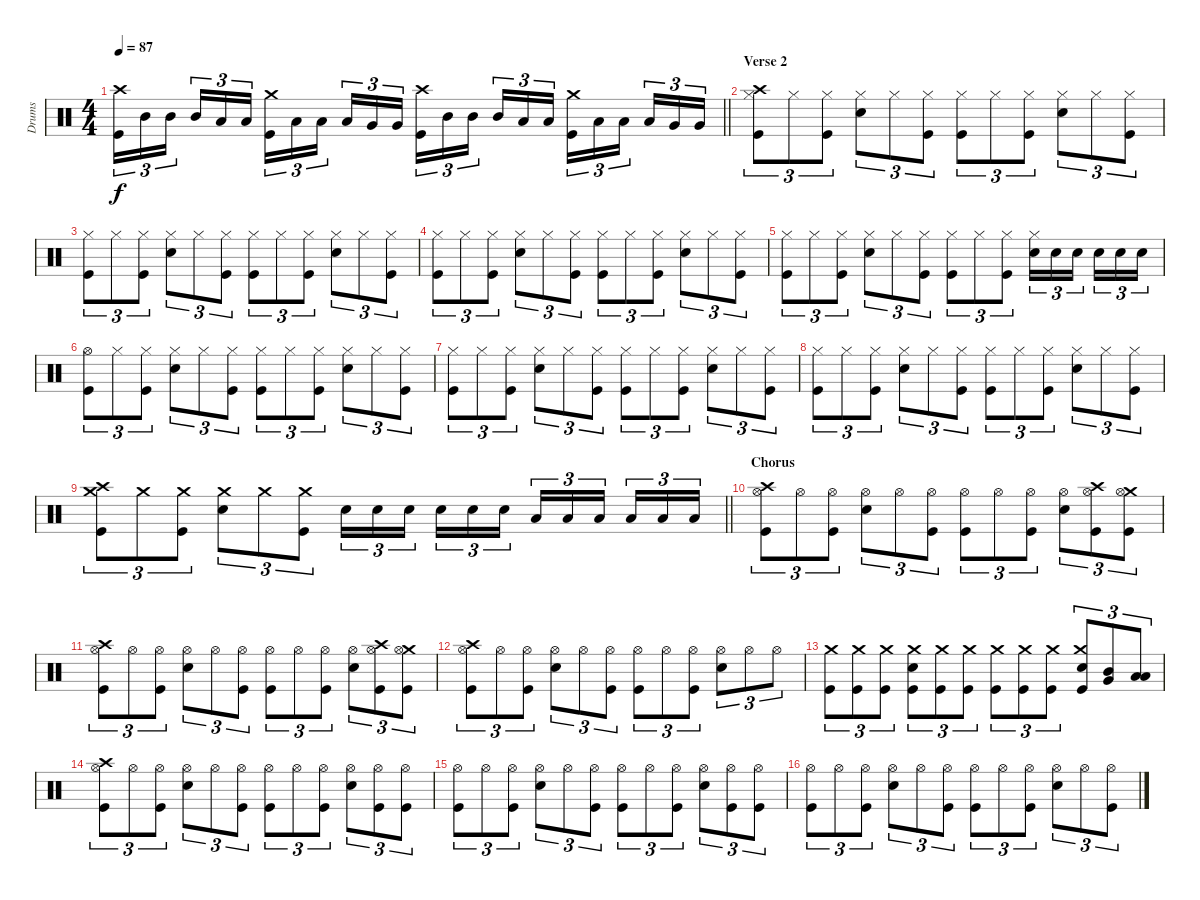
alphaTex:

\track ("Drums" "Drums") {instrument percussion}
\staff {score}
\articulation defaults
\ts (4 4)
\tempo 87
\clef neutral
\barLineRight lightlight
\ks c
("Crash high (hit)" "Kick (hit)").16{tu (3 2) dy f} "Mid Tom (hit)".16{tu (3 2)} "Mid Tom (hit)".16{tu (3 2) beam splitsecondary} "Mid Tom (hit)".16{tu (3 2)} "Low Tom (hit)".16{tu (3 2)} "Low Tom (hit)".16{tu (3 2)} ("Crash medium (hit)" "Kick (hit)").16{tu (3 2)} "Low Tom (hit)".16{tu (3 2)} "Low Tom (hit)".16{tu (3 2) beam splitsecondary} "Low Tom (hit)".16{tu (3 2)} "Very Low Tom (hit)".16{tu (3 2)} "Very Low Tom (hit)".16{tu (3 2)} ("Crash high (hit)" "Kick (hit)").16{tu (3 2)} "Mid Tom (hit)".16{tu (3 2)} "Mid Tom (hit)".16{tu (3 2) beam splitsecondary} "Mid Tom (hit)".16{tu (3 2)} "Low Tom (hit)".16{tu (3 2)} "Low Tom (hit)".16{tu (3 2)} ("Crash medium (hit)" "Kick (hit)").16{tu (3 2)} "Low Tom (hit)".16{tu (3 2)} "Low Tom (hit)".16{tu (3 2) beam splitsecondary} "Low Tom (hit)".16{tu (3 2)} "Very Low Tom (hit)".16{tu (3 2)} "Very Low Tom (hit)".16{tu (3 2)} |
\section ("" "Verse 2")
("Crash high (hit)" "Hi-Hat (closed)" "Kick (hit)").8{tu (3 2)} "Hi-Hat (closed)".8{tu (3 2)} ("Hi-Hat (closed)" "Kick (hit)").8{tu (3 2)} ("Hi-Hat (closed)" "Snare (hit) 2").8{tu (3 2)} "Hi-Hat (closed)".8{tu (3 2)} ("Hi-Hat (closed)" "Kick (hit)").8{tu (3 2)} ("Hi-Hat (closed)" "Kick (hit)").8{tu (3 2)} "Hi-Hat (closed)".8{tu (3 2)} ("Hi-Hat (closed)" "Kick (hit)").8{tu (3 2)} ("Hi-Hat (closed)" "Snare (hit) 2").8{tu (3 2)} "Hi-Hat (closed)".8{tu (3 2)} ("Hi-Hat (closed)" "Kick (hit)").8{tu (3 2)} |
("Hi-Hat (closed)" "Kick (hit)").8{tu (3 2)} "Hi-Hat (closed)".8{tu (3 2)} ("Hi-Hat (closed)" "Kick (hit)").8{tu (3 2)} ("Hi-Hat (closed)" "Snare (hit) 2").8{tu (3 2)} "Hi-Hat (closed)".8{tu (3 2)} ("Hi-Hat (closed)" "Kick (hit)").8{tu (3 2)} ("Hi-Hat (closed)" "Kick (hit)").8{tu (3 2)} "Hi-Hat (closed)".8{tu (3 2)} ("Hi-Hat (closed)" "Kick (hit)").8{tu (3 2)} ("Hi-Hat (closed)" "Snare (hit) 2").8{tu (3 2)} "Hi-Hat (closed)".8{tu (3 2)} ("Hi-Hat (closed)" "Kick (hit)").8{tu (3 2)} |
("Hi-Hat (closed)" "Kick (hit)").8{tu (3 2)} "Hi-Hat (closed)".8{tu (3 2)} ("Hi-Hat (closed)" "Kick (hit)").8{tu (3 2)} ("Hi-Hat (closed)" "Snare (hit) 2").8{tu (3 2)} "Hi-Hat (closed)".8{tu (3 2)} ("Hi-Hat (closed)" "Kick (hit)").8{tu (3 2)} ("Hi-Hat (closed)" "Kick (hit)").8{tu (3 2)} "Hi-Hat (closed)".8{tu (3 2)} ("Hi-Hat (closed)" "Kick (hit)").8{tu (3 2)} ("Hi-Hat (closed)" "Snare (hit) 2").8{tu (3 2)} "Hi-Hat (closed)".8{tu (3 2)} ("Hi-Hat (closed)" "Kick (hit)").8{tu (3 2)} |
("Hi-Hat (closed)" "Kick (hit)").8{tu (3 2)} "Hi-Hat (closed)".8{tu (3 2)} ("Hi-Hat (closed)" "Kick (hit)").8{tu (3 2)} ("Hi-Hat (closed)" "Snare (hit) 2").8{tu (3 2)} "Hi-Hat (closed)".8{tu (3 2)} ("Hi-Hat (closed)" "Kick (hit)").8{tu (3 2)} ("Hi-Hat (closed)" "Kick (hit)").8{tu (3 2)} "Hi-Hat (closed)".8{tu (3 2)} ("Hi-Hat (closed)" "Kick (hit)").8{tu (3 2)} ("Hi-Hat (closed)" "Snare (hit) 2").16{tu (3 2)} "Snare (hit) 2".16{tu (3 2)} "Snare (hit) 2".16{tu (3 2) beam splitsecondary} "Snare (hit) 2".16{tu (3 2)} "Snare (hit) 2".16{tu (3 2)} "Snare (hit) 2".16{tu (3 2)} |
("Hi-Hat (open)" "Kick (hit)").8{tu (3 2)} "Hi-Hat (closed)".8{tu (3 2)} ("Hi-Hat (closed)" "Kick (hit)").8{tu (3 2)} ("Hi-Hat (closed)" "Snare (hit) 2").8{tu (3 2)} "Hi-Hat (closed)".8{tu (3 2)} ("Hi-Hat (closed)" "Kick (hit)").8{tu (3 2)} ("Hi-Hat (closed)" "Kick (hit)").8{tu (3 2)} "Hi-Hat (closed)".8{tu (3 2)} ("Hi-Hat (closed)" "Kick (hit)").8{tu (3 2)} ("Hi-Hat (closed)" "Snare (hit) 2").8{tu (3 2)} "Hi-Hat (closed)".8{tu (3 2)} ("Hi-Hat (closed)" "Kick (hit)").8{tu (3 2)} |
("Hi-Hat (closed)" "Kick (hit)").8{tu (3 2)} "Hi-Hat (closed)".8{tu (3 2)} ("Hi-Hat (closed)" "Kick (hit)").8{tu (3 2)} ("Hi-Hat (closed)" "Snare (hit) 2").8{tu (3 2)} "Hi-Hat (closed)".8{tu (3 2)} ("Hi-Hat (closed)" "Kick (hit)").8{tu (3 2)} ("Hi-Hat (closed)" "Kick (hit)").8{tu (3 2)} "Hi-Hat (closed)".8{tu (3 2)} ("Hi-Hat (closed)" "Kick (hit)").8{tu (3 2)} ("Hi-Hat (closed)" "Snare (hit) 2").8{tu (3 2)} "Hi-Hat (closed)".8{tu (3 2)} ("Hi-Hat (closed)" "Kick (hit)").8{tu (3 2)} |
("Hi-Hat (closed)" "Kick (hit)").8{tu (3 2)} "Hi-Hat (closed)".8{tu (3 2)} ("Hi-Hat (closed)" "Kick (hit)").8{tu (3 2)} ("Hi-Hat (closed)" "Snare (hit) 2").8{tu (3 2)} "Hi-Hat (closed)".8{tu (3 2)} ("Hi-Hat (closed)" "Kick (hit)").8{tu (3 2)} ("Hi-Hat (closed)" "Kick (hit)").8{tu (3 2)} "Hi-Hat (closed)".8{tu (3 2)} ("Hi-Hat (closed)" "Kick (hit)").8{tu (3 2)} ("Hi-Hat (closed)" "Snare (hit) 2").8{tu (3 2)} "Hi-Hat (closed)".8{tu (3 2)} ("Hi-Hat (closed)" "Kick (hit)").8{tu (3 2)} |
\barLineRight lightlight
("Crash high (hit)" "Crash medium (hit)" "Kick (hit)").8{tu (3 2)} "Crash medium (hit)".8{tu (3 2)} ("Crash medium (hit)" "Kick (hit)").8{tu (3 2)} ("Crash medium (hit)" "Snare (hit) 2").8{tu (3 2)} "Crash medium (hit)".8{tu (3 2)} ("Crash medium (hit)" "Kick (hit)").8{tu (3 2)} "Snare (hit) 2".16{tu (3 2)} "Snare (hit) 2".16{tu (3 2)} "Snare (hit) 2".16{tu (3 2) beam splitsecondary} "Snare (hit) 2".16{tu (3 2)} "Snare (hit) 2".16{tu (3 2)} "Snare (hit) 2".16{tu (3 2)} "Low Tom (hit)".16{tu (3 2)} "Low Tom (hit)".16{tu (3 2)} "Low Tom (hit)".16{tu (3 2) beam splitsecondary} "Low Tom (hit)".16{tu (3 2)} "Low Floor Tom (hit)".16{tu (3 2)} "Low Floor Tom (hit)".16{tu (3 2)} |
\section ("" "Chorus")
("Crash high (hit)" "Hi-Hat (open)" "Kick (hit)").8{tu (3 2)} "Hi-Hat (open)".8{tu (3 2)} ("Hi-Hat (open)" "Kick (hit)").8{tu (3 2)} ("Hi-Hat (open)" "Snare (hit) 2").8{tu (3 2)} "Hi-Hat (open)".8{tu (3 2)} ("Hi-Hat (open)" "Kick (hit)").8{tu (3 2)} ("Hi-Hat (open)" "Kick (hit)").8{tu (3 2)} "Hi-Hat (open)".8{tu (3 2)} ("Hi-Hat (open)" "Kick (hit)").8{tu (3 2)} ("Hi-Hat (open)" "Snare (hit) 2").8{tu (3 2)} ("Crash high (hit)" "Hi-Hat (open)" "Kick (hit)").8{tu (3 2)} ("Crash medium (hit)" "Hi-Hat (open)" "Kick (hit)").8{tu (3 2)} |
("Crash high (hit)" "Hi-Hat (open)" "Kick (hit)").8{tu (3 2)} "Hi-Hat (open)".8{tu (3 2)} ("Hi-Hat (open)" "Kick (hit)").8{tu (3 2)} ("Hi-Hat (open)" "Snare (hit) 2").8{tu (3 2)} "Hi-Hat (open)".8{tu (3 2)} ("Hi-Hat (open)" "Kick (hit)").8{tu (3 2)} ("Hi-Hat (open)" "Kick (hit)").8{tu (3 2)} "Hi-Hat (open)".8{tu (3 2)} ("Hi-Hat (open)" "Kick (hit)").8{tu (3 2)} ("Hi-Hat (open)" "Snare (hit) 2").8{tu (3 2)} ("Crash high (hit)" "Hi-Hat (open)" "Kick (hit)").8{tu (3 2)} ("Crash medium (hit)" "Hi-Hat (open)" "Kick (hit)").8{tu (3 2)} |
("Crash high (hit)" "Hi-Hat (open)" "Kick (hit)").8{tu (3 2)} "Hi-Hat (open)".8{tu (3 2)} ("Hi-Hat (open)" "Kick (hit)").8{tu (3 2)} ("Hi-Hat (open)" "Snare (hit) 2").8{tu (3 2)} "Hi-Hat (open)".8{tu (3 2)} ("Hi-Hat (open)" "Kick (hit)").8{tu (3 2)} ("Hi-Hat (open)" "Kick (hit)").8{tu (3 2)} "Hi-Hat (open)".8{tu (3 2)} ("Hi-Hat (open)" "Kick (hit)").8{tu (3 2)} ("Hi-Hat (open)" "Snare (hit) 2").8{tu (3 2)} "Hi-Hat (open)".8{tu (3 2)} "Hi-Hat (open)".8{tu (3 2)} |
("Crash medium (hit)" "Kick (hit)").8{tu (3 2)} ("Crash medium (hit)" "Kick (hit)").8{tu (3 2)} ("Crash medium (hit)" "Kick (hit)").8{tu (3 2)} ("Crash medium (hit)" "Snare (hit) 2" "Kick (hit)").8{tu (3 2)} ("Crash medium (hit)" "Kick (hit)").8{tu (3 2)} ("Crash medium (hit)" "Kick (hit)").8{tu (3 2)} ("Crash medium (hit)" "Kick (hit)").8{tu (3 2)} ("Crash medium (hit)" "Kick (hit)").8{tu (3 2)} ("Crash medium (hit)" "Kick (hit)").8{tu (3 2)} ("Crash medium (hit)" "Snare (hit) 2" "Kick (hit)").8{tu (3 2)} ("Very Low Tom (hit)" "Mid Tom (hit)").8{tu (3 2)} ("Low Floor Tom (hit)" "Low Tom (hit)").8{tu (3 2)} |
("Crash high (hit)" "Hi-Hat (open)" "Kick (hit)").8{tu (3 2)} "Hi-Hat (open)".8{tu (3 2)} ("Hi-Hat (open)" "Kick (hit)").8{tu (3 2)} ("Hi-Hat (open)" "Snare (hit) 2").8{tu (3 2)} "Hi-Hat (open)".8{tu (3 2)} ("Hi-Hat (open)" "Kick (hit)").8{tu (3 2)} ("Hi-Hat (open)" "Kick (hit)").8{tu (3 2)} "Hi-Hat (open)".8{tu (3 2)} ("Hi-Hat (open)" "Kick (hit)").8{tu (3 2)} ("Hi-Hat (open)" "Snare (hit) 2").8{tu (3 2)} ("Hi-Hat (open)" "Kick (hit)").8{tu (3 2)} ("Hi-Hat (open)" "Kick (hit)").8{tu (3 2)} |
("Hi-Hat (open)" "Kick (hit)").8{tu (3 2)} "Hi-Hat (open)".8{tu (3 2)} ("Hi-Hat (open)" "Kick (hit)").8{tu (3 2)} ("Hi-Hat (open)" "Snare (hit) 2").8{tu (3 2)} "Hi-Hat (open)".8{tu (3 2)} ("Hi-Hat (open)" "Kick (hit)").8{tu (3 2)} ("Hi-Hat (open)" "Kick (hit)").8{tu (3 2)} "Hi-Hat (open)".8{tu (3 2)} ("Hi-Hat (open)" "Kick (hit)").8{tu (3 2)} ("Hi-Hat (open)" "Snare (hit) 2").8{tu (3 2)} ("Hi-Hat (open)" "Kick (hit)").8{tu (3 2)} ("Hi-Hat (open)" "Kick (hit)").8{tu (3 2)} |
("Hi-Hat (open)" "Kick (hit)").8{tu (3 2)} "Hi-Hat (open)".8{tu (3 2)} ("Hi-Hat (open)" "Kick (hit)").8{tu (3 2)} ("Hi-Hat (open)" "Snare (hit) 2").8{tu (3 2)} "Hi-Hat (open)".8{tu (3 2)} ("Hi-Hat (open)" "Kick (hit)").8{tu (3 2)} ("Hi-Hat (open)" "Kick (hit)").8{tu (3 2)} "Hi-Hat (open)".8{tu (3 2)} ("Hi-Hat (open)" "Kick (hit)").8{tu (3 2)} ("Hi-Hat (open)" "Snare (hit) 2").8{tu (3 2)} "Hi-Hat (open)".8{tu (3 2)} ("Hi-Hat (open)" "Kick (hit)").8{tu (3 2)}
